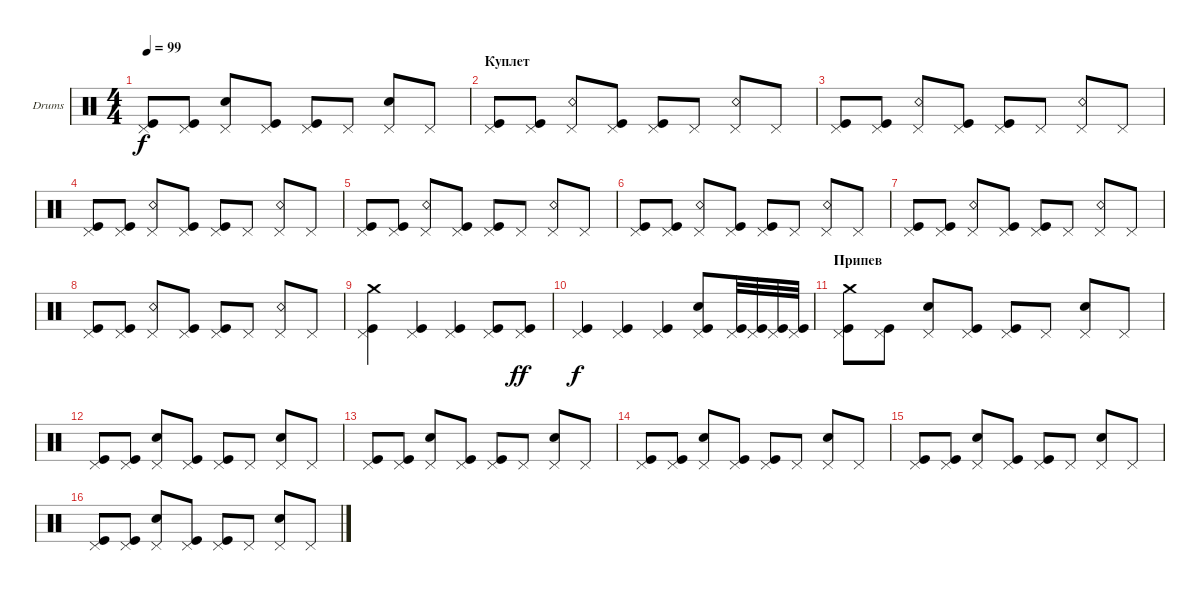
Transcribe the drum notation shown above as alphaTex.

\defaultSystemsLayout 4
\bracketExtendMode groupsimilarinstruments
\firstSystemTrackNameOrientation horizontal
\otherSystemsTrackNameOrientation horizontal
\track ("Е. Кулаков" "Drums") {instrument percussion}
\staff {score}
\articulation defaults
\ts (4 4)
\tempo 99
\clef neutral
\ks c
("Pedal Hi-Hat (hit)" "Kick (hit)").8{dy f} ("Pedal Hi-Hat (hit)" "Kick (hit)").8 ("Snare (hit) 2" "Pedal Hi-Hat (hit)").8 ("Pedal Hi-Hat (hit)" "Kick (hit)").8 ("Pedal Hi-Hat (hit)" "Kick (hit)").8 "Pedal Hi-Hat (hit)".8 ("Snare (hit) 2" "Pedal Hi-Hat (hit)").8 "Pedal Hi-Hat (hit)".8 |
\section ("" "Куплет")
("Pedal Hi-Hat (hit)" "Kick (hit)").8 ("Pedal Hi-Hat (hit)" "Kick (hit)").8 ("Snare (rim shot)" "Pedal Hi-Hat (hit)").8 ("Pedal Hi-Hat (hit)" "Kick (hit)").8 ("Pedal Hi-Hat (hit)" "Kick (hit)").8 "Pedal Hi-Hat (hit)".8 ("Snare (rim shot)" "Pedal Hi-Hat (hit)").8 "Pedal Hi-Hat (hit)".8 |
("Pedal Hi-Hat (hit)" "Kick (hit)").8 ("Pedal Hi-Hat (hit)" "Kick (hit)").8 ("Snare (rim shot)" "Pedal Hi-Hat (hit)").8 ("Pedal Hi-Hat (hit)" "Kick (hit)").8 ("Pedal Hi-Hat (hit)" "Kick (hit)").8 "Pedal Hi-Hat (hit)".8 ("Snare (rim shot)" "Pedal Hi-Hat (hit)").8 "Pedal Hi-Hat (hit)".8 |
("Pedal Hi-Hat (hit)" "Kick (hit)").8 ("Pedal Hi-Hat (hit)" "Kick (hit)").8 ("Snare (rim shot)" "Pedal Hi-Hat (hit)").8 ("Pedal Hi-Hat (hit)" "Kick (hit)").8 ("Pedal Hi-Hat (hit)" "Kick (hit)").8 "Pedal Hi-Hat (hit)".8 ("Snare (rim shot)" "Pedal Hi-Hat (hit)").8 "Pedal Hi-Hat (hit)".8 |
("Pedal Hi-Hat (hit)" "Kick (hit)").8 ("Pedal Hi-Hat (hit)" "Kick (hit)").8 ("Snare (rim shot)" "Pedal Hi-Hat (hit)").8 ("Pedal Hi-Hat (hit)" "Kick (hit)").8 ("Pedal Hi-Hat (hit)" "Kick (hit)").8 "Pedal Hi-Hat (hit)".8 ("Snare (rim shot)" "Pedal Hi-Hat (hit)").8 "Pedal Hi-Hat (hit)".8 |
("Pedal Hi-Hat (hit)" "Kick (hit)").8 ("Pedal Hi-Hat (hit)" "Kick (hit)").8 ("Snare (rim shot)" "Pedal Hi-Hat (hit)").8 ("Pedal Hi-Hat (hit)" "Kick (hit)").8 ("Pedal Hi-Hat (hit)" "Kick (hit)").8 "Pedal Hi-Hat (hit)".8 ("Snare (rim shot)" "Pedal Hi-Hat (hit)").8 "Pedal Hi-Hat (hit)".8 |
("Pedal Hi-Hat (hit)" "Kick (hit)").8 ("Pedal Hi-Hat (hit)" "Kick (hit)").8 ("Snare (rim shot)" "Pedal Hi-Hat (hit)").8 ("Pedal Hi-Hat (hit)" "Kick (hit)").8 ("Pedal Hi-Hat (hit)" "Kick (hit)").8 "Pedal Hi-Hat (hit)".8 ("Snare (rim shot)" "Pedal Hi-Hat (hit)").8 "Pedal Hi-Hat (hit)".8 |
("Pedal Hi-Hat (hit)" "Kick (hit)").8 ("Pedal Hi-Hat (hit)" "Kick (hit)").8 ("Snare (rim shot)" "Pedal Hi-Hat (hit)").8 ("Pedal Hi-Hat (hit)" "Kick (hit)").8 ("Pedal Hi-Hat (hit)" "Kick (hit)").8 "Pedal Hi-Hat (hit)".8 ("Snare (rim shot)" "Pedal Hi-Hat (hit)").8 "Pedal Hi-Hat (hit)".8 |
("Pedal Hi-Hat (hit)" "Kick (hit)" "Crash medium (hit)").4 ("Pedal Hi-Hat (hit)" "Kick (hit)").4 ("Pedal Hi-Hat (hit)" "Kick (hit)").4 ("Pedal Hi-Hat (hit)" "Kick (hit)").8 ("Pedal Hi-Hat (hit)" "Kick (hit)").8{dy ff} |
("Pedal Hi-Hat (hit)" "Kick (hit)").4{dy f} ("Pedal Hi-Hat (hit)" "Kick (hit)").4 ("Pedal Hi-Hat (hit)" "Kick (hit)").4 ("Pedal Hi-Hat (hit)" "Kick (hit)" "Snare (hit) 2").8 ("Pedal Hi-Hat (hit)" "Kick (hit)").32 ("Pedal Hi-Hat (hit)" "Kick (hit)").32 ("Pedal Hi-Hat (hit)" "Kick (hit)").32 ("Pedal Hi-Hat (hit)" "Kick (hit)").32 |
\section ("" "Припев")
("Pedal Hi-Hat (hit)" "Kick (hit)" "Crash medium (hit)").8 ("Pedal Hi-Hat (hit)" "Kick (hit)").8 ("Snare (hit) 2" "Pedal Hi-Hat (hit)").8 ("Pedal Hi-Hat (hit)" "Kick (hit)").8 ("Pedal Hi-Hat (hit)" "Kick (hit)").8 "Pedal Hi-Hat (hit)".8 ("Snare (hit) 2" "Pedal Hi-Hat (hit)").8 "Pedal Hi-Hat (hit)".8 |
("Pedal Hi-Hat (hit)" "Kick (hit)").8 ("Pedal Hi-Hat (hit)" "Kick (hit)").8 ("Snare (hit) 2" "Pedal Hi-Hat (hit)").8 ("Pedal Hi-Hat (hit)" "Kick (hit)").8 ("Pedal Hi-Hat (hit)" "Kick (hit)").8 "Pedal Hi-Hat (hit)".8 ("Snare (hit) 2" "Pedal Hi-Hat (hit)").8 "Pedal Hi-Hat (hit)".8 |
("Pedal Hi-Hat (hit)" "Kick (hit)").8 ("Pedal Hi-Hat (hit)" "Kick (hit)").8 ("Snare (hit) 2" "Pedal Hi-Hat (hit)").8 ("Pedal Hi-Hat (hit)" "Kick (hit)").8 ("Pedal Hi-Hat (hit)" "Kick (hit)").8 "Pedal Hi-Hat (hit)".8 ("Snare (hit) 2" "Pedal Hi-Hat (hit)").8 "Pedal Hi-Hat (hit)".8 |
("Pedal Hi-Hat (hit)" "Kick (hit)").8 ("Pedal Hi-Hat (hit)" "Kick (hit)").8 ("Snare (hit) 2" "Pedal Hi-Hat (hit)").8 ("Pedal Hi-Hat (hit)" "Kick (hit)").8 ("Pedal Hi-Hat (hit)" "Kick (hit)").8 "Pedal Hi-Hat (hit)".8 ("Snare (hit) 2" "Pedal Hi-Hat (hit)").8 "Pedal Hi-Hat (hit)".8 |
("Pedal Hi-Hat (hit)" "Kick (hit)").8 ("Pedal Hi-Hat (hit)" "Kick (hit)").8 ("Snare (hit) 2" "Pedal Hi-Hat (hit)").8 ("Pedal Hi-Hat (hit)" "Kick (hit)").8 ("Pedal Hi-Hat (hit)" "Kick (hit)").8 "Pedal Hi-Hat (hit)".8 ("Snare (hit) 2" "Pedal Hi-Hat (hit)").8 "Pedal Hi-Hat (hit)".8 |
("Pedal Hi-Hat (hit)" "Kick (hit)").8 ("Pedal Hi-Hat (hit)" "Kick (hit)").8 ("Snare (hit) 2" "Pedal Hi-Hat (hit)").8 ("Pedal Hi-Hat (hit)" "Kick (hit)").8 ("Pedal Hi-Hat (hit)" "Kick (hit)").8 "Pedal Hi-Hat (hit)".8 ("Snare (hit) 2" "Pedal Hi-Hat (hit)").8 "Pedal Hi-Hat (hit)".8
